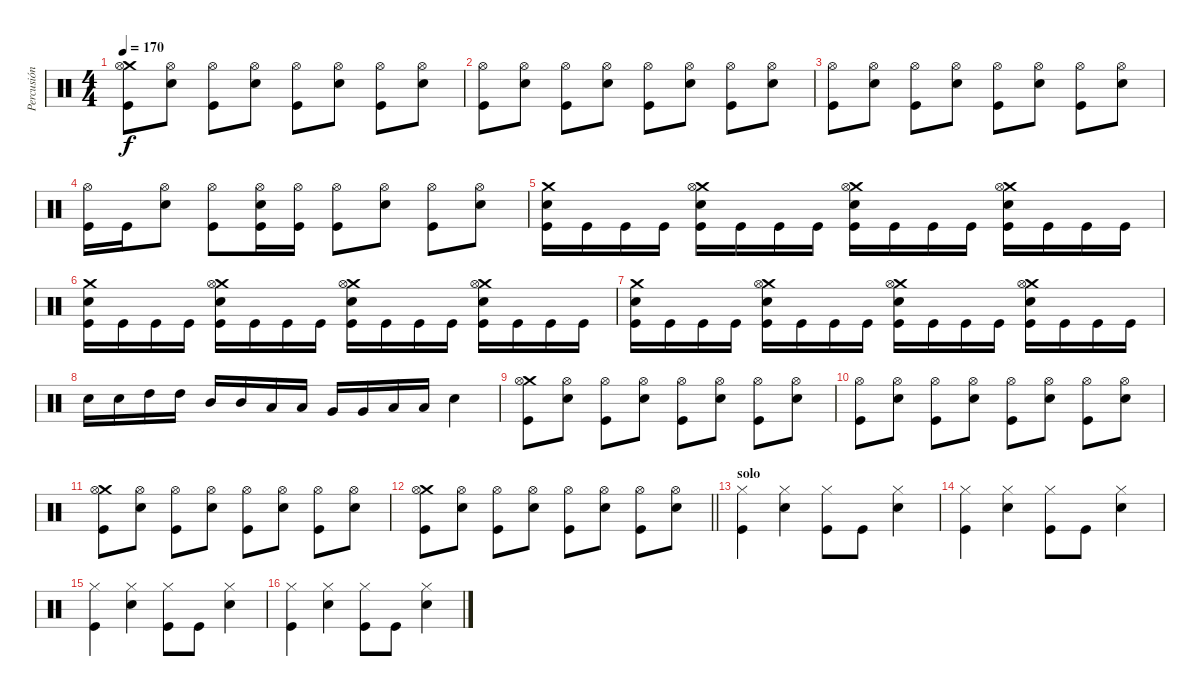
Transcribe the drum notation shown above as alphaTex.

\track ("Percusión" "Percusión") {instrument percussion}
\staff {score}
\articulation defaults
\ts (4 4)
\tempo 170
\clef neutral
\ks c
("Crash medium (hit)" "Hi-Hat (open)" "Kick (hit)").8{dy f} ("Hi-Hat (open)" "Electric Snare (hit)").8 ("Hi-Hat (open)" "Kick (hit)").8 ("Hi-Hat (open)" "Electric Snare (hit)").8 ("Hi-Hat (open)" "Kick (hit)").8 ("Hi-Hat (open)" "Electric Snare (hit)").8 ("Hi-Hat (open)" "Kick (hit)").8 ("Hi-Hat (open)" "Electric Snare (hit)").8 |
("Hi-Hat (open)" "Kick (hit)").8 ("Hi-Hat (open)" "Electric Snare (hit)").8 ("Hi-Hat (open)" "Kick (hit)").8 ("Hi-Hat (open)" "Electric Snare (hit)").8 ("Hi-Hat (open)" "Kick (hit)").8 ("Hi-Hat (open)" "Electric Snare (hit)").8 ("Hi-Hat (open)" "Kick (hit)").8 ("Hi-Hat (open)" "Electric Snare (hit)").8 |
("Hi-Hat (open)" "Kick (hit)").8 ("Hi-Hat (open)" "Electric Snare (hit)").8 ("Hi-Hat (open)" "Kick (hit)").8 ("Hi-Hat (open)" "Electric Snare (hit)").8 ("Hi-Hat (open)" "Kick (hit)").8 ("Hi-Hat (open)" "Electric Snare (hit)").8 ("Hi-Hat (open)" "Kick (hit)").8 ("Hi-Hat (open)" "Electric Snare (hit)").8 |
("Hi-Hat (open)" "Kick (hit)").16 "Kick (hit)".16 ("Hi-Hat (open)" "Electric Snare (hit)").8 ("Hi-Hat (open)" "Kick (hit)").8 ("Hi-Hat (open)" "Electric Snare (hit)" "Kick (hit)").16 ("Hi-Hat (open)" "Kick (hit)").16 ("Hi-Hat (open)" "Kick (hit)").8 ("Hi-Hat (open)" "Electric Snare (hit)").8 ("Hi-Hat (open)" "Kick (hit)").8 ("Hi-Hat (open)" "Electric Snare (hit)").8 |
("Crash medium (hit)" "Electric Snare (hit)" "Kick (hit)").16 "Kick (hit)".16 "Kick (hit)".16 "Kick (hit)".16 ("Crash medium (hit)" "Hi-Hat (open)" "Electric Snare (hit)" "Kick (hit)").16 "Kick (hit)".16 "Kick (hit)".16 "Kick (hit)".16 ("Crash medium (hit)" "Hi-Hat (open)" "Electric Snare (hit)" "Kick (hit)").16 "Kick (hit)".16 "Kick (hit)".16 "Kick (hit)".16 ("Crash medium (hit)" "Hi-Hat (open)" "Electric Snare (hit)" "Kick (hit)").16 "Kick (hit)".16 "Kick (hit)".16 "Kick (hit)".16 |
("Crash medium (hit)" "Electric Snare (hit)" "Kick (hit)").16 "Kick (hit)".16 "Kick (hit)".16 "Kick (hit)".16 ("Crash medium (hit)" "Hi-Hat (open)" "Electric Snare (hit)" "Kick (hit)").16 "Kick (hit)".16 "Kick (hit)".16 "Kick (hit)".16 ("Crash medium (hit)" "Hi-Hat (open)" "Electric Snare (hit)" "Kick (hit)").16 "Kick (hit)".16 "Kick (hit)".16 "Kick (hit)".16 ("Crash medium (hit)" "Hi-Hat (open)" "Electric Snare (hit)" "Kick (hit)").16 "Kick (hit)".16 "Kick (hit)".16 "Kick (hit)".16 |
("Crash medium (hit)" "Electric Snare (hit)" "Kick (hit)").16 "Kick (hit)".16 "Kick (hit)".16 "Kick (hit)".16 ("Crash medium (hit)" "Hi-Hat (open)" "Electric Snare (hit)" "Kick (hit)").16 "Kick (hit)".16 "Kick (hit)".16 "Kick (hit)".16 ("Crash medium (hit)" "Hi-Hat (open)" "Electric Snare (hit)" "Kick (hit)").16 "Kick (hit)".16 "Kick (hit)".16 "Kick (hit)".16 ("Crash medium (hit)" "Hi-Hat (open)" "Electric Snare (hit)" "Kick (hit)").16 "Kick (hit)".16 "Kick (hit)".16 "Kick (hit)".16 |
"Electric Snare (hit)".16 "Electric Snare (hit)".16 "High Tom (hit)".16 "High Tom (hit)".16 "Mid Tom (hit)".16 "Mid Tom (hit)".16 "Low Tom (hit)".16 "Low Tom (hit)".16 "Very Low Tom (hit)".16 "Very Low Tom (hit)".16 "Low Tom (hit)".16 "Low Tom (hit)".16 "Electric Snare (hit)".4 |
("Crash medium (hit)" "Hi-Hat (open)" "Kick (hit)").8 ("Hi-Hat (open)" "Electric Snare (hit)").8 ("Hi-Hat (open)" "Kick (hit)").8 ("Hi-Hat (open)" "Electric Snare (hit)").8 ("Hi-Hat (open)" "Kick (hit)").8 ("Hi-Hat (open)" "Electric Snare (hit)").8 ("Hi-Hat (open)" "Kick (hit)").8 ("Hi-Hat (open)" "Electric Snare (hit)").8 |
("Hi-Hat (open)" "Kick (hit)").8 ("Hi-Hat (open)" "Electric Snare (hit)").8 ("Hi-Hat (open)" "Kick (hit)").8 ("Hi-Hat (open)" "Electric Snare (hit)").8 ("Hi-Hat (open)" "Kick (hit)").8 ("Hi-Hat (open)" "Electric Snare (hit)").8 ("Hi-Hat (open)" "Kick (hit)").8 ("Hi-Hat (open)" "Electric Snare (hit)").8 |
("Crash medium (hit)" "Hi-Hat (open)" "Kick (hit)").8 ("Hi-Hat (open)" "Electric Snare (hit)").8 ("Hi-Hat (open)" "Kick (hit)").8 ("Hi-Hat (open)" "Electric Snare (hit)").8 ("Hi-Hat (open)" "Kick (hit)").8 ("Hi-Hat (open)" "Electric Snare (hit)").8 ("Hi-Hat (open)" "Kick (hit)").8 ("Hi-Hat (open)" "Electric Snare (hit)").8 |
\barLineRight lightlight
("Crash medium (hit)" "Hi-Hat (open)" "Kick (hit)").8 ("Hi-Hat (open)" "Electric Snare (hit)").8 ("Hi-Hat (open)" "Kick (hit)").8 ("Hi-Hat (open)" "Electric Snare (hit)").8 ("Hi-Hat (open)" "Kick (hit)").8 ("Hi-Hat (open)" "Electric Snare (hit)").8 ("Hi-Hat (open)" "Kick (hit)").8 ("Hi-Hat (open)" "Electric Snare (hit)").8 |
\section ("" "solo")
("Hi-Hat (closed)" "Kick (hit)").4 ("Hi-Hat (closed)" "Electric Snare (hit)").4 ("Hi-Hat (closed)" "Kick (hit)").8 "Kick (hit)".8 ("Hi-Hat (closed)" "Electric Snare (hit)").4 |
("Hi-Hat (closed)" "Kick (hit)").4 ("Hi-Hat (closed)" "Electric Snare (hit)").4 ("Hi-Hat (closed)" "Kick (hit)").8 "Kick (hit)".8 ("Hi-Hat (closed)" "Electric Snare (hit)").4 |
("Hi-Hat (closed)" "Kick (hit)").4 ("Hi-Hat (closed)" "Electric Snare (hit)").4 ("Hi-Hat (closed)" "Kick (hit)").8 "Kick (hit)".8 ("Hi-Hat (closed)" "Electric Snare (hit)").4 |
("Hi-Hat (closed)" "Kick (hit)").4 ("Hi-Hat (closed)" "Electric Snare (hit)").4 ("Hi-Hat (closed)" "Kick (hit)").8 "Kick (hit)".8 ("Hi-Hat (closed)" "Electric Snare (hit)").4
